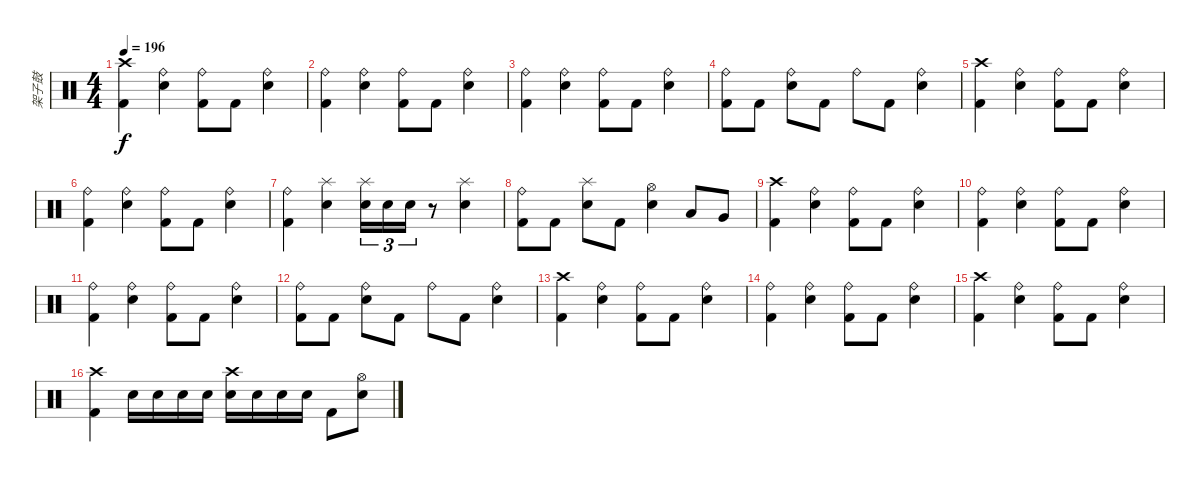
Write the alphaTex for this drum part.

\track ("架子鼓" "架子鼓") {instrument percussion}
\staff {score}
\articulation defaults
\ts (4 4)
\tempo 196
\clef neutral
\ks c
("Crash high (hit)" "Kick (hit) 2").4{dy f} ("Ride (bell)" "Snare (hit) 2").4 ("Ride (bell)" "Kick (hit) 2").8 "Kick (hit) 2".8 ("Ride (bell)" "Snare (hit) 2").4 |
("Ride (bell)" "Kick (hit) 2").4 ("Ride (bell)" "Snare (hit) 2").4 ("Ride (bell)" "Kick (hit) 2").8 "Kick (hit) 2".8 ("Ride (bell)" "Snare (hit) 2").4 |
("Ride (bell)" "Kick (hit) 2").4 ("Ride (bell)" "Snare (hit) 2").4 ("Ride (bell)" "Kick (hit) 2").8 "Kick (hit) 2".8 ("Ride (bell)" "Snare (hit) 2").4 |
("Ride (bell)" "Kick (hit) 2").8 "Kick (hit) 2".8 ("Ride (bell)" "Snare (hit) 2").8 "Kick (hit) 2".8 "Ride (bell)".8 "Kick (hit) 2".8 ("Ride (bell)" "Snare (hit) 2").4 |
("Crash high (hit)" "Kick (hit) 2").4 ("Ride (bell)" "Snare (hit) 2").4 ("Ride (bell)" "Kick (hit) 2").8 "Kick (hit) 2".8 ("Ride (bell)" "Snare (hit) 2").4 |
("Ride (bell)" "Kick (hit) 2").4 ("Ride (bell)" "Snare (hit) 2").4 ("Ride (bell)" "Kick (hit) 2").8 "Kick (hit) 2".8 ("Ride (bell)" "Snare (hit) 2").4 |
("Ride (bell)" "Kick (hit) 2").4 ("Splash (hit)" "Snare (hit) 2").4 ("Splash (hit)" "Snare (hit) 2").16{tu (3 2)} "Snare (hit) 2".16{tu (3 2)} "Snare (hit) 2".16{tu (3 2)} r.8 ("Splash (hit)" "Snare (hit) 2").4 |
("Ride (bell)" "Kick (hit) 2").8 "Kick (hit) 2".8 ("Splash (hit)" "Snare (hit) 2").8 "Kick (hit) 2".8 ("Hi-Hat (open)" "Snare (hit) 2").4 "Low Tom (hit)".8 "Very Low Tom (hit)".8 |
("Crash high (hit)" "Kick (hit) 2").4 ("Ride (bell)" "Snare (hit) 2").4 ("Ride (bell)" "Kick (hit) 2").8 "Kick (hit) 2".8 ("Ride (bell)" "Snare (hit) 2").4 |
("Ride (bell)" "Kick (hit) 2").4 ("Ride (bell)" "Snare (hit) 2").4 ("Ride (bell)" "Kick (hit) 2").8 "Kick (hit) 2".8 ("Ride (bell)" "Snare (hit) 2").4 |
("Ride (bell)" "Kick (hit) 2").4 ("Ride (bell)" "Snare (hit) 2").4 ("Ride (bell)" "Kick (hit) 2").8 "Kick (hit) 2".8 ("Ride (bell)" "Snare (hit) 2").4 |
("Ride (bell)" "Kick (hit) 2").8 "Kick (hit) 2".8 ("Ride (bell)" "Snare (hit) 2").8 "Kick (hit) 2".8 "Ride (bell)".8 "Kick (hit) 2".8 ("Ride (bell)" "Snare (hit) 2").4 |
("Crash high (hit)" "Kick (hit) 2").4 ("Ride (bell)" "Snare (hit) 2").4 ("Ride (bell)" "Kick (hit) 2").8 "Kick (hit) 2".8 ("Ride (bell)" "Snare (hit) 2").4 |
("Ride (bell)" "Kick (hit) 2").4 ("Ride (bell)" "Snare (hit) 2").4 ("Ride (bell)" "Kick (hit) 2").8 "Kick (hit) 2".8 ("Ride (bell)" "Snare (hit) 2").4 |
("Crash high (hit)" "Kick (hit) 2").4 ("Ride (bell)" "Snare (hit) 2").4 ("Ride (bell)" "Kick (hit) 2").8 "Kick (hit) 2".8 ("Ride (bell)" "Snare (hit) 2").4 |
("Crash high (hit)" "Kick (hit) 2").4 "Snare (hit) 2".16 "Snare (hit) 2".16 "Snare (hit) 2".16 "Snare (hit) 2".16 ("Crash high (hit)" "Electric Snare (hit)").16 "Electric Snare (hit)".16 "Electric Snare (hit)".16 "Electric Snare (hit)".16 "Kick (hit) 2".8 ("Hi-Hat (open)" "Electric Snare (hit)").8
